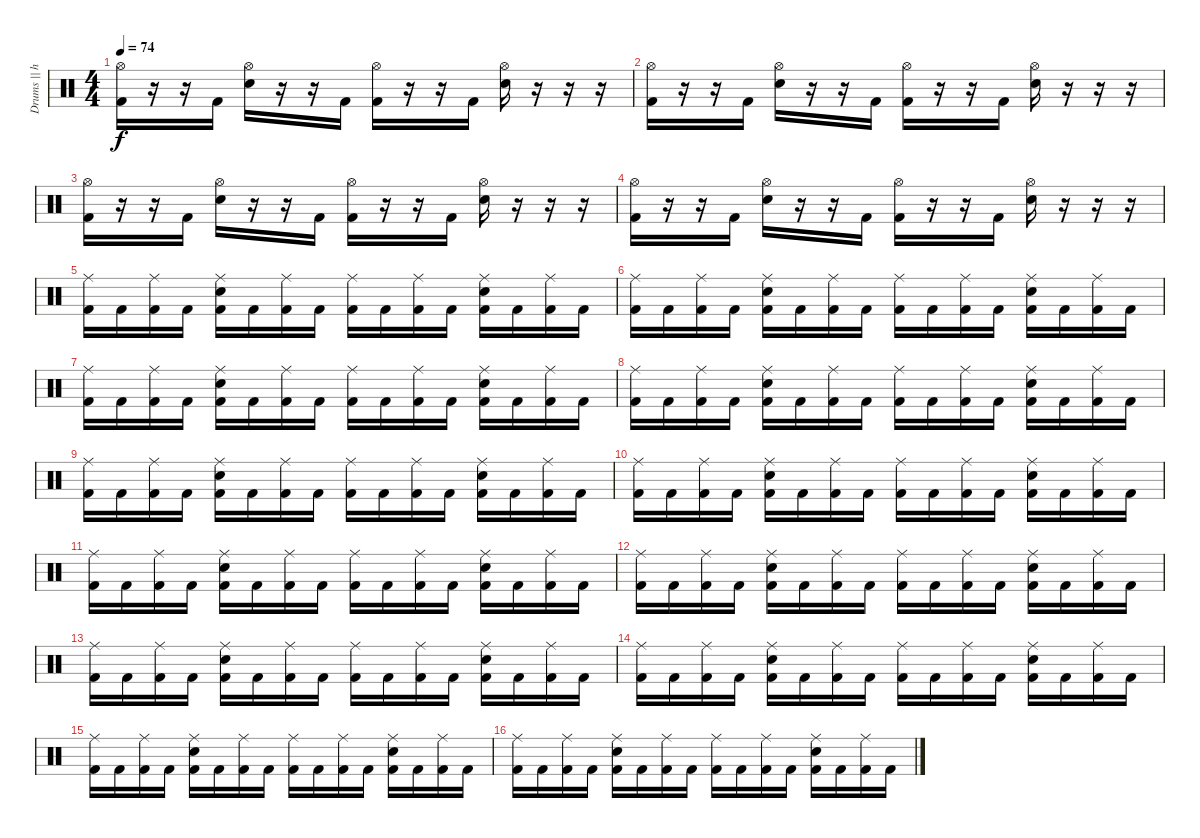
\track ("Drums || have a look at my other tabs!" "Drums || h") {instrument percussion}
\staff {score}
\articulation defaults
\ts (4 4)
\tempo 74
\clef neutral
\ks c
("Hi-Hat (open)" "Kick (hit) 2").16{dy f} r.16 r.16 "Kick (hit) 2".16 ("Hi-Hat (open)" "Electric Snare (hit)").16 r.16 r.16 "Kick (hit) 2".16 ("Hi-Hat (open)" "Kick (hit) 2").16 r.16 r.16 "Kick (hit) 2".16 ("Hi-Hat (open)" "Electric Snare (hit)").16 r.16 r.16 r.16 |
("Hi-Hat (open)" "Kick (hit) 2").16 r.16 r.16 "Kick (hit) 2".16 ("Hi-Hat (open)" "Electric Snare (hit)").16 r.16 r.16 "Kick (hit) 2".16 ("Hi-Hat (open)" "Kick (hit) 2").16 r.16 r.16 "Kick (hit) 2".16 ("Hi-Hat (open)" "Electric Snare (hit)").16 r.16 r.16 r.16 |
("Hi-Hat (open)" "Kick (hit) 2").16 r.16 r.16 "Kick (hit) 2".16 ("Hi-Hat (open)" "Electric Snare (hit)").16 r.16 r.16 "Kick (hit) 2".16 ("Hi-Hat (open)" "Kick (hit) 2").16 r.16 r.16 "Kick (hit) 2".16 ("Hi-Hat (open)" "Electric Snare (hit)").16 r.16 r.16 r.16 |
("Hi-Hat (open)" "Kick (hit) 2").16 r.16 r.16 "Kick (hit) 2".16 ("Hi-Hat (open)" "Electric Snare (hit)").16 r.16 r.16 "Kick (hit) 2".16 ("Hi-Hat (open)" "Kick (hit) 2").16 r.16 r.16 "Kick (hit) 2".16 ("Hi-Hat (open)" "Electric Snare (hit)").16 r.16 r.16 r.16 |
("Ride (middle)" "Kick (hit) 2").16 "Kick (hit) 2".16 ("Ride (middle)" "Kick (hit) 2").16 "Kick (hit) 2".16 ("Ride (middle)" "Electric Snare (hit)" "Kick (hit) 2").16 "Kick (hit) 2".16 ("Ride (middle)" "Kick (hit) 2").16 "Kick (hit) 2".16 ("Ride (middle)" "Kick (hit) 2").16 "Kick (hit) 2".16 ("Ride (middle)" "Kick (hit) 2").16 "Kick (hit) 2".16 ("Ride (middle)" "Electric Snare (hit)" "Kick (hit) 2").16 "Kick (hit) 2".16 ("Ride (middle)" "Kick (hit) 2").16 "Kick (hit) 2".16 |
("Ride (middle)" "Kick (hit) 2").16 "Kick (hit) 2".16 ("Ride (middle)" "Kick (hit) 2").16 "Kick (hit) 2".16 ("Ride (middle)" "Electric Snare (hit)" "Kick (hit) 2").16 "Kick (hit) 2".16 ("Ride (middle)" "Kick (hit) 2").16 "Kick (hit) 2".16 ("Ride (middle)" "Kick (hit) 2").16 "Kick (hit) 2".16 ("Ride (middle)" "Kick (hit) 2").16 "Kick (hit) 2".16 ("Ride (middle)" "Electric Snare (hit)" "Kick (hit) 2").16 "Kick (hit) 2".16 ("Ride (middle)" "Kick (hit) 2").16 "Kick (hit) 2".16 |
("Ride (middle)" "Kick (hit) 2").16 "Kick (hit) 2".16 ("Ride (middle)" "Kick (hit) 2").16 "Kick (hit) 2".16 ("Ride (middle)" "Electric Snare (hit)" "Kick (hit) 2").16 "Kick (hit) 2".16 ("Ride (middle)" "Kick (hit) 2").16 "Kick (hit) 2".16 ("Ride (middle)" "Kick (hit) 2").16 "Kick (hit) 2".16 ("Ride (middle)" "Kick (hit) 2").16 "Kick (hit) 2".16 ("Ride (middle)" "Electric Snare (hit)" "Kick (hit) 2").16 "Kick (hit) 2".16 ("Ride (middle)" "Kick (hit) 2").16 "Kick (hit) 2".16 |
("Ride (middle)" "Kick (hit) 2").16 "Kick (hit) 2".16 ("Ride (middle)" "Kick (hit) 2").16 "Kick (hit) 2".16 ("Ride (middle)" "Electric Snare (hit)" "Kick (hit) 2").16 "Kick (hit) 2".16 ("Ride (middle)" "Kick (hit) 2").16 "Kick (hit) 2".16 ("Ride (middle)" "Kick (hit) 2").16 "Kick (hit) 2".16 ("Ride (middle)" "Kick (hit) 2").16 "Kick (hit) 2".16 ("Ride (middle)" "Electric Snare (hit)" "Kick (hit) 2").16 "Kick (hit) 2".16 ("Ride (middle)" "Kick (hit) 2").16 "Kick (hit) 2".16 |
("Ride (middle)" "Kick (hit) 2").16 "Kick (hit) 2".16 ("Ride (middle)" "Kick (hit) 2").16 "Kick (hit) 2".16 ("Ride (middle)" "Electric Snare (hit)" "Kick (hit) 2").16 "Kick (hit) 2".16 ("Ride (middle)" "Kick (hit) 2").16 "Kick (hit) 2".16 ("Ride (middle)" "Kick (hit) 2").16 "Kick (hit) 2".16 ("Ride (middle)" "Kick (hit) 2").16 "Kick (hit) 2".16 ("Ride (middle)" "Electric Snare (hit)" "Kick (hit) 2").16 "Kick (hit) 2".16 ("Ride (middle)" "Kick (hit) 2").16 "Kick (hit) 2".16 |
("Ride (middle)" "Kick (hit) 2").16 "Kick (hit) 2".16 ("Ride (middle)" "Kick (hit) 2").16 "Kick (hit) 2".16 ("Ride (middle)" "Electric Snare (hit)" "Kick (hit) 2").16 "Kick (hit) 2".16 ("Ride (middle)" "Kick (hit) 2").16 "Kick (hit) 2".16 ("Ride (middle)" "Kick (hit) 2").16 "Kick (hit) 2".16 ("Ride (middle)" "Kick (hit) 2").16 "Kick (hit) 2".16 ("Ride (middle)" "Electric Snare (hit)" "Kick (hit) 2").16 "Kick (hit) 2".16 ("Ride (middle)" "Kick (hit) 2").16 "Kick (hit) 2".16 |
("Ride (middle)" "Kick (hit) 2").16 "Kick (hit) 2".16 ("Ride (middle)" "Kick (hit) 2").16 "Kick (hit) 2".16 ("Ride (middle)" "Electric Snare (hit)" "Kick (hit) 2").16 "Kick (hit) 2".16 ("Ride (middle)" "Kick (hit) 2").16 "Kick (hit) 2".16 ("Ride (middle)" "Kick (hit) 2").16 "Kick (hit) 2".16 ("Ride (middle)" "Kick (hit) 2").16 "Kick (hit) 2".16 ("Ride (middle)" "Electric Snare (hit)" "Kick (hit) 2").16 "Kick (hit) 2".16 ("Ride (middle)" "Kick (hit) 2").16 "Kick (hit) 2".16 |
("Ride (middle)" "Kick (hit) 2").16 "Kick (hit) 2".16 ("Ride (middle)" "Kick (hit) 2").16 "Kick (hit) 2".16 ("Ride (middle)" "Electric Snare (hit)" "Kick (hit) 2").16 "Kick (hit) 2".16 ("Ride (middle)" "Kick (hit) 2").16 "Kick (hit) 2".16 ("Ride (middle)" "Kick (hit) 2").16 "Kick (hit) 2".16 ("Ride (middle)" "Kick (hit) 2").16 "Kick (hit) 2".16 ("Ride (middle)" "Electric Snare (hit)" "Kick (hit) 2").16 "Kick (hit) 2".16 ("Ride (middle)" "Kick (hit) 2").16 "Kick (hit) 2".16 |
("Ride (middle)" "Kick (hit) 2").16 "Kick (hit) 2".16 ("Ride (middle)" "Kick (hit) 2").16 "Kick (hit) 2".16 ("Ride (middle)" "Electric Snare (hit)" "Kick (hit) 2").16 "Kick (hit) 2".16 ("Ride (middle)" "Kick (hit) 2").16 "Kick (hit) 2".16 ("Ride (middle)" "Kick (hit) 2").16 "Kick (hit) 2".16 ("Ride (middle)" "Kick (hit) 2").16 "Kick (hit) 2".16 ("Ride (middle)" "Electric Snare (hit)" "Kick (hit) 2").16 "Kick (hit) 2".16 ("Ride (middle)" "Kick (hit) 2").16 "Kick (hit) 2".16 |
("Ride (middle)" "Kick (hit) 2").16 "Kick (hit) 2".16 ("Ride (middle)" "Kick (hit) 2").16 "Kick (hit) 2".16 ("Ride (middle)" "Electric Snare (hit)" "Kick (hit) 2").16 "Kick (hit) 2".16 ("Ride (middle)" "Kick (hit) 2").16 "Kick (hit) 2".16 ("Ride (middle)" "Kick (hit) 2").16 "Kick (hit) 2".16 ("Ride (middle)" "Kick (hit) 2").16 "Kick (hit) 2".16 ("Ride (middle)" "Electric Snare (hit)" "Kick (hit) 2").16 "Kick (hit) 2".16 ("Ride (middle)" "Kick (hit) 2").16 "Kick (hit) 2".16 |
("Ride (middle)" "Kick (hit) 2").16 "Kick (hit) 2".16 ("Ride (middle)" "Kick (hit) 2").16 "Kick (hit) 2".16 ("Ride (middle)" "Electric Snare (hit)" "Kick (hit) 2").16 "Kick (hit) 2".16 ("Ride (middle)" "Kick (hit) 2").16 "Kick (hit) 2".16 ("Ride (middle)" "Kick (hit) 2").16 "Kick (hit) 2".16 ("Ride (middle)" "Kick (hit) 2").16 "Kick (hit) 2".16 ("Ride (middle)" "Electric Snare (hit)" "Kick (hit) 2").16 "Kick (hit) 2".16 ("Ride (middle)" "Kick (hit) 2").16 "Kick (hit) 2".16 |
("Ride (middle)" "Kick (hit) 2").16 "Kick (hit) 2".16 ("Ride (middle)" "Kick (hit) 2").16 "Kick (hit) 2".16 ("Ride (middle)" "Electric Snare (hit)" "Kick (hit) 2").16 "Kick (hit) 2".16 ("Ride (middle)" "Kick (hit) 2").16 "Kick (hit) 2".16 ("Ride (middle)" "Kick (hit) 2").16 "Kick (hit) 2".16 ("Ride (middle)" "Kick (hit) 2").16 "Kick (hit) 2".16 ("Ride (middle)" "Electric Snare (hit)" "Kick (hit) 2").16 "Kick (hit) 2".16 ("Ride (middle)" "Kick (hit) 2").16 "Kick (hit) 2".16
